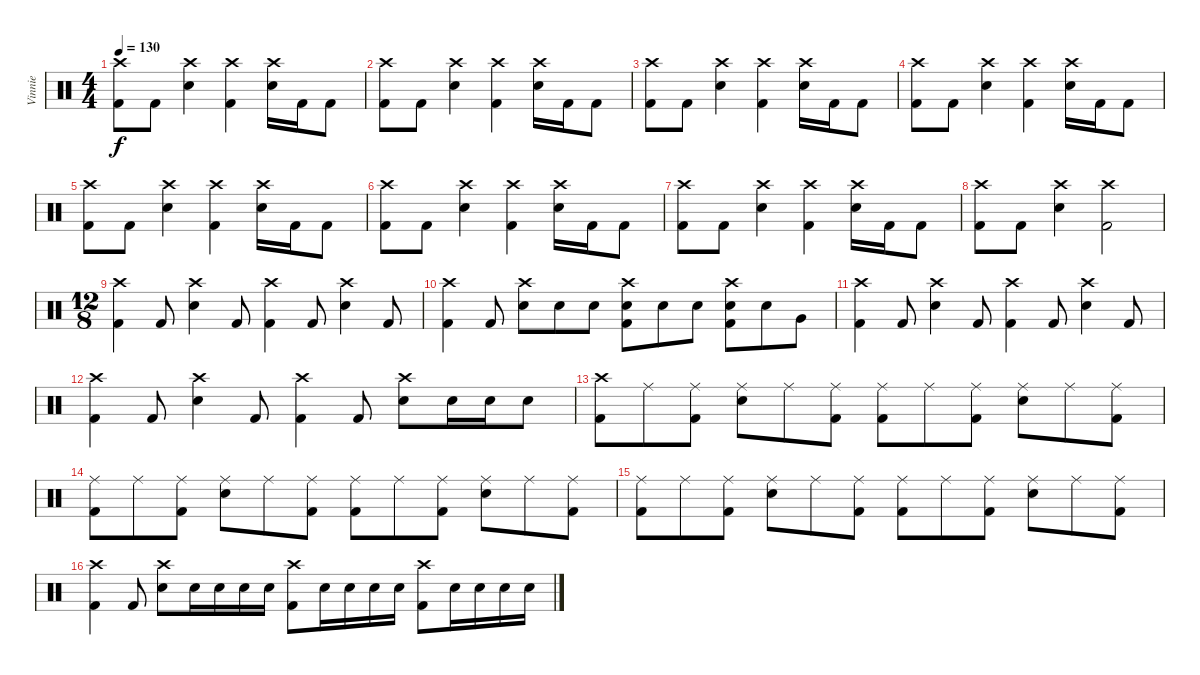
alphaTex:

\track ("Vinnie" "Vinnie") {instrument percussion}
\staff {score}
\articulation defaults
\ts (4 4)
\tempo 130
\clef neutral
\ks c
("Crash high (hit)" "Kick (hit) 2").8{dy f} "Kick (hit) 2".8 ("Crash high (hit)" "Electric Snare (hit)").4 ("Crash high (hit)" "Kick (hit) 2").4 ("Crash high (hit)" "Electric Snare (hit)").16 "Kick (hit) 2".16 "Kick (hit) 2".8 |
("Crash high (hit)" "Kick (hit) 2").8 "Kick (hit) 2".8 ("Crash high (hit)" "Electric Snare (hit)").4 ("Crash high (hit)" "Kick (hit) 2").4 ("Crash high (hit)" "Electric Snare (hit)").16 "Kick (hit) 2".16 "Kick (hit) 2".8 |
("Crash high (hit)" "Kick (hit) 2").8 "Kick (hit) 2".8 ("Crash high (hit)" "Electric Snare (hit)").4 ("Crash high (hit)" "Kick (hit) 2").4 ("Crash high (hit)" "Electric Snare (hit)").16 "Kick (hit) 2".16 "Kick (hit) 2".8 |
("Crash high (hit)" "Kick (hit) 2").8 "Kick (hit) 2".8 ("Crash high (hit)" "Electric Snare (hit)").4 ("Crash high (hit)" "Kick (hit) 2").4 ("Crash high (hit)" "Electric Snare (hit)").16 "Kick (hit) 2".16 "Kick (hit) 2".8 |
("Crash high (hit)" "Kick (hit) 2").8 "Kick (hit) 2".8 ("Crash high (hit)" "Electric Snare (hit)").4 ("Crash high (hit)" "Kick (hit) 2").4 ("Crash high (hit)" "Electric Snare (hit)").16 "Kick (hit) 2".16 "Kick (hit) 2".8 |
("Crash high (hit)" "Kick (hit) 2").8 "Kick (hit) 2".8 ("Crash high (hit)" "Electric Snare (hit)").4 ("Crash high (hit)" "Kick (hit) 2").4 ("Crash high (hit)" "Electric Snare (hit)").16 "Kick (hit) 2".16 "Kick (hit) 2".8 |
("Crash high (hit)" "Kick (hit) 2").8 "Kick (hit) 2".8 ("Crash high (hit)" "Electric Snare (hit)").4 ("Crash high (hit)" "Kick (hit) 2").4 ("Crash high (hit)" "Electric Snare (hit)").16 "Kick (hit) 2".16 "Kick (hit) 2".8 |
("Crash high (hit)" "Kick (hit) 2").8 "Kick (hit) 2".8 ("Crash high (hit)" "Electric Snare (hit)").4 ("Crash high (hit)" "Kick (hit) 2").2 |
\ts (12 8)
("Crash high (hit)" "Kick (hit) 2").4 "Kick (hit) 2".8 ("Crash high (hit)" "Electric Snare (hit)").4 "Kick (hit) 2".8 ("Crash high (hit)" "Kick (hit) 2").4 "Kick (hit) 2".8 ("Crash high (hit)" "Electric Snare (hit)").4 "Kick (hit) 2".8 |
("Crash high (hit)" "Kick (hit) 2").4 "Kick (hit) 2".8 ("Crash high (hit)" "Electric Snare (hit)").8 "Electric Snare (hit)".8 "Electric Snare (hit)".8 ("Crash high (hit)" "Electric Snare (hit)" "Kick (hit) 2").8 "Electric Snare (hit)".8 "Electric Snare (hit)".8 ("Crash high (hit)" "Electric Snare (hit)" "Kick (hit) 2").8 "Electric Snare (hit)".8 "Very Low Tom (hit)".8 |
("Crash high (hit)" "Kick (hit) 2").4 "Kick (hit) 2".8 ("Crash high (hit)" "Electric Snare (hit)").4 "Kick (hit) 2".8 ("Crash high (hit)" "Kick (hit) 2").4 "Kick (hit) 2".8 ("Crash high (hit)" "Electric Snare (hit)").4 "Kick (hit) 2".8 |
("Crash high (hit)" "Kick (hit) 2").4 "Kick (hit) 2".8 ("Crash high (hit)" "Electric Snare (hit)").4 "Kick (hit) 2".8 ("Crash high (hit)" "Kick (hit) 2").4 "Kick (hit) 2".8 ("Crash high (hit)" "Electric Snare (hit)").8 "Electric Snare (hit)".16 "Electric Snare (hit)".16 "Electric Snare (hit)".8 |
("Crash high (hit)" "Kick (hit) 2").8 "Ride (middle)".8 ("Ride (middle)" "Kick (hit) 2").8 ("Ride (middle)" "Electric Snare (hit)").8 "Ride (middle)".8 ("Ride (middle)" "Kick (hit) 2").8 ("Ride (middle)" "Kick (hit) 2").8 "Ride (middle)".8 ("Ride (middle)" "Kick (hit) 2").8 ("Ride (middle)" "Electric Snare (hit)").8 "Ride (middle)".8 ("Ride (middle)" "Kick (hit) 2").8 |
("Ride (middle)" "Kick (hit) 2").8 "Ride (middle)".8 ("Ride (middle)" "Kick (hit) 2").8 ("Ride (middle)" "Electric Snare (hit)").8 "Ride (middle)".8 ("Ride (middle)" "Kick (hit) 2").8 ("Ride (middle)" "Kick (hit) 2").8 "Ride (middle)".8 ("Ride (middle)" "Kick (hit) 2").8 ("Ride (middle)" "Electric Snare (hit)").8 "Ride (middle)".8 ("Ride (middle)" "Kick (hit) 2").8 |
("Ride (middle)" "Kick (hit) 2").8 "Ride (middle)".8 ("Ride (middle)" "Kick (hit) 2").8 ("Ride (middle)" "Electric Snare (hit)").8 "Ride (middle)".8 ("Ride (middle)" "Kick (hit) 2").8 ("Ride (middle)" "Kick (hit) 2").8 "Ride (middle)".8 ("Ride (middle)" "Kick (hit) 2").8 ("Ride (middle)" "Electric Snare (hit)").8 "Ride (middle)".8 ("Ride (middle)" "Kick (hit) 2").8 |
("Crash high (hit)" "Kick (hit) 2").4 "Kick (hit) 2".8 ("Crash high (hit)" "Electric Snare (hit)").8 "Electric Snare (hit)".16 "Electric Snare (hit)".16 "Electric Snare (hit)".16 "Electric Snare (hit)".16 ("Crash high (hit)" "Kick (hit) 2").8 "Electric Snare (hit)".16 "Electric Snare (hit)".16 "Electric Snare (hit)".16 "Electric Snare (hit)".16 ("Crash high (hit)" "Kick (hit) 2").8 "Electric Snare (hit)".16 "Electric Snare (hit)".16 "Electric Snare (hit)".16 "Electric Snare (hit)".16
